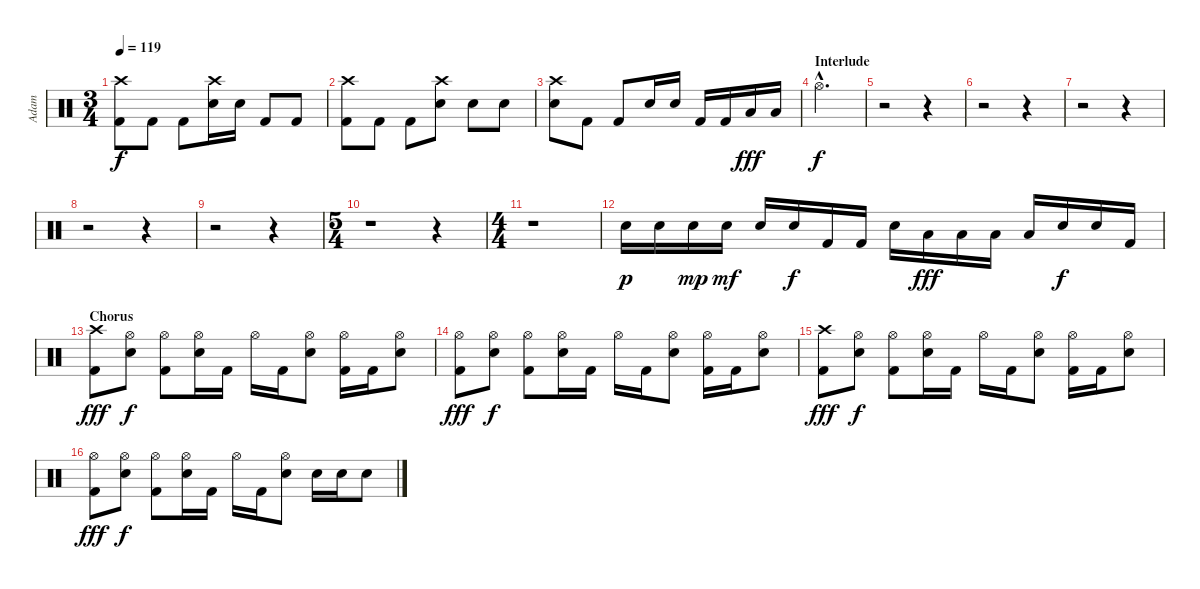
\track ("Adam" "Adam") {instrument percussion}
\staff {score}
\articulation defaults
\ts (3 4)
\tempo 119
\clef neutral
\ks c
("Crash high (hit)" "Kick (hit) 2").8{dy f} "Kick (hit) 2".8 "Kick (hit) 2".8 ("Crash high (hit)" "Electric Snare (hit)").16 "Electric Snare (hit)".16 "Kick (hit) 2".8 "Kick (hit) 2".8 |
("Crash high (hit)" "Kick (hit) 2").8 "Kick (hit) 2".8 "Kick (hit) 2".8 ("Crash high (hit)" "Electric Snare (hit)").8 "Electric Snare (hit)".8 "Electric Snare (hit)".8 |
("Crash high (hit)" "Electric Snare (hit)").8 "Kick (hit) 2".8 "Kick (hit) 2".8 "Electric Snare (hit)".16 "Electric Snare (hit)".16 "Kick (hit) 2".16 "Kick (hit) 2".16 "Low Tom (hit)".16{dy fff} "Low Tom (hit)".16 |
\section ("" "Interlude")
"Hi-Hat (open)"{hac}.2{d dy f} |
r.2 r.4 |
r.2 r.4 |
r.2 r.4 |
r.2 r.4 |
r.2 r.4 |
\ts (5 4)
r.1 r.4 |
\ts (4 4)
r.1 |
"Electric Snare (hit)".16{dy p} "Electric Snare (hit)".16 "Electric Snare (hit)".16{dy mp} "Electric Snare (hit)".16{dy mf} "Electric Snare (hit)".16 "Electric Snare (hit)".16{dy f} "Kick (hit) 2".16 "Kick (hit) 2".16 "Electric Snare (hit)".16 "Low Tom (hit)".16{dy fff} "Low Tom (hit)".16 "Low Tom (hit)".16 "Low Tom (hit)".16 "Electric Snare (hit)".16{dy f} "Electric Snare (hit)".16 "Kick (hit) 2".16 |
\section ("" "Chorus")
("Crash high (hit)" "Kick (hit) 2").8{dy fff} ("Hi-Hat (open)" "Electric Snare (hit)").8{dy f} ("Hi-Hat (open)" "Kick (hit) 2").8 ("Hi-Hat (open)" "Electric Snare (hit)").16 "Kick (hit) 2".16 "Hi-Hat (open)".16 "Kick (hit) 2".16 ("Hi-Hat (open)" "Electric Snare (hit)").8 ("Hi-Hat (open)" "Kick (hit) 2").16 "Kick (hit) 2".16 ("Hi-Hat (open)" "Electric Snare (hit)").8 |
("Hi-Hat (open)" "Kick (hit) 2").8{dy fff} ("Hi-Hat (open)" "Electric Snare (hit)").8{dy f} ("Hi-Hat (open)" "Kick (hit) 2").8 ("Hi-Hat (open)" "Electric Snare (hit)").16 "Kick (hit) 2".16 "Hi-Hat (open)".16 "Kick (hit) 2".16 ("Hi-Hat (open)" "Electric Snare (hit)").8 ("Hi-Hat (open)" "Kick (hit) 2").16 "Kick (hit) 2".16 ("Hi-Hat (open)" "Electric Snare (hit)").8 |
("Crash high (hit)" "Kick (hit) 2").8{dy fff} ("Hi-Hat (open)" "Electric Snare (hit)").8{dy f} ("Hi-Hat (open)" "Kick (hit) 2").8 ("Hi-Hat (open)" "Electric Snare (hit)").16 "Kick (hit) 2".16 "Hi-Hat (open)".16 "Kick (hit) 2".16 ("Hi-Hat (open)" "Electric Snare (hit)").8 ("Hi-Hat (open)" "Kick (hit) 2").16 "Kick (hit) 2".16 ("Hi-Hat (open)" "Electric Snare (hit)").8 |
("Hi-Hat (open)" "Kick (hit) 2").8{dy fff} ("Hi-Hat (open)" "Electric Snare (hit)").8{dy f} ("Hi-Hat (open)" "Kick (hit) 2").8 ("Hi-Hat (open)" "Electric Snare (hit)").16 "Kick (hit) 2".16 "Hi-Hat (open)".16 "Kick (hit) 2".16 ("Hi-Hat (open)" "Electric Snare (hit)").8 "Electric Snare (hit)".16 "Electric Snare (hit)".16 "Electric Snare (hit)".8
